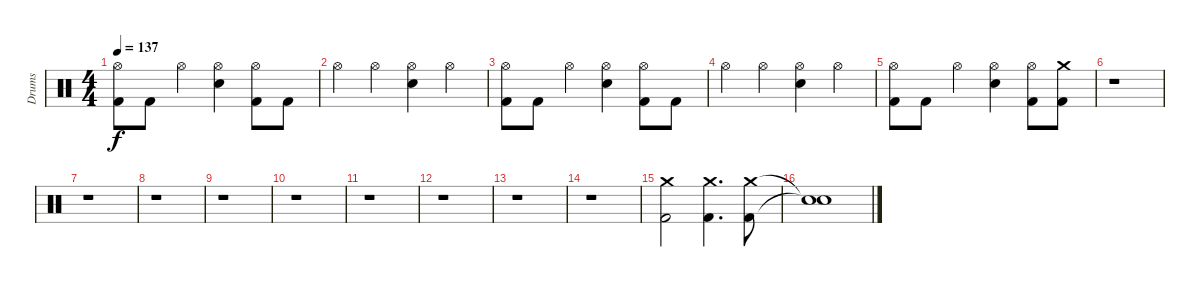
\track ("Drums" "Drums") {instrument percussion}
\staff {score}
\articulation defaults
\ts (4 4)
\tempo 137
\clef neutral
\ks c
("Hi-Hat (open)" "Kick (hit) 2").8{dy f} "Kick (hit) 2".8 "Hi-Hat (open)".4 ("Hi-Hat (open)" "Electric Snare (hit)").4 ("Hi-Hat (open)" "Kick (hit) 2").8 "Kick (hit) 2".8 |
"Hi-Hat (open)".4 "Hi-Hat (open)".4 ("Hi-Hat (open)" "Electric Snare (hit)").4 "Hi-Hat (open)".4 |
("Hi-Hat (open)" "Kick (hit) 2").8 "Kick (hit) 2".8 "Hi-Hat (open)".4 ("Hi-Hat (open)" "Electric Snare (hit)").4 ("Hi-Hat (open)" "Kick (hit) 2").8 "Kick (hit) 2".8 |
"Hi-Hat (open)".4 "Hi-Hat (open)".4 ("Hi-Hat (open)" "Electric Snare (hit)").4 "Hi-Hat (open)".4 |
("Hi-Hat (open)" "Kick (hit) 2").8 "Kick (hit) 2".8 "Hi-Hat (open)".4 ("Hi-Hat (open)" "Electric Snare (hit)").4 ("Hi-Hat (open)" "Kick (hit) 2").8 ("Crash medium (hit)" "Kick (hit) 2").8 |
r.1 |
r.1 |
r.1 |
r.1 |
r.1 |
r.1 |
r.1 |
r.1 |
r.1 |
("Crash medium (hit)" "Kick (hit) 2").2 ("Crash medium (hit)" "Kick (hit) 2").4{d} ("Crash medium (hit)" "Kick (hit) 2").8 |
("Snare (hit)"{t} "Snare (hit)"{t}).1
